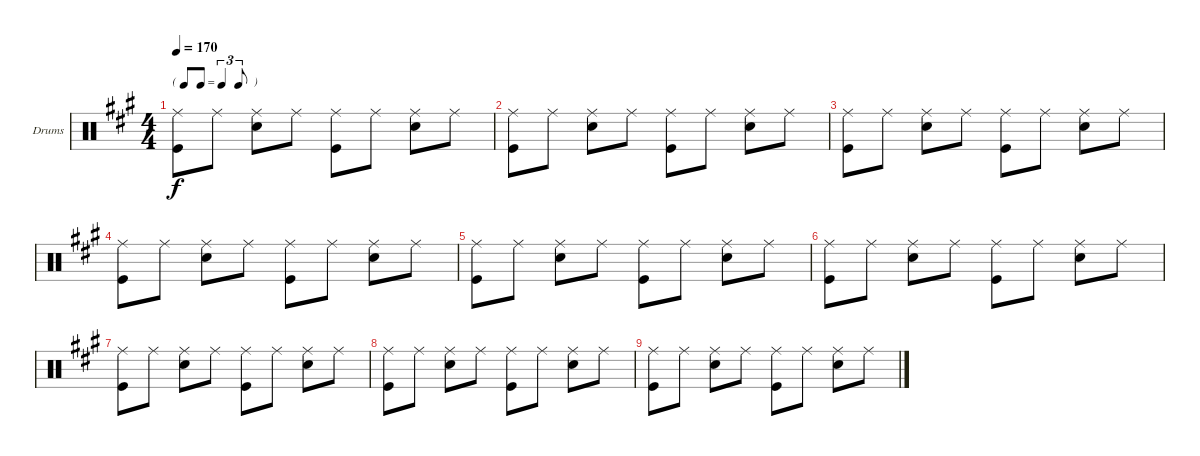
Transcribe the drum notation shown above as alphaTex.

\bracketExtendMode groupsimilarinstruments
\firstSystemTrackNameOrientation horizontal
\otherSystemsTrackNameOrientation horizontal
\track ("Ringo" "Drums") {instrument percussion}
\staff {score}
\articulation defaults
\ts (4 4)
\tf triplet8th
\tempo 170
\clef neutral
\ks a
("Ride (middle)" "Kick (hit)").8{dy f} "Ride (middle)".8 ("Ride (middle)" "Snare (hit) 2").8 "Ride (middle)".8 ("Ride (middle)" "Kick (hit)").8 "Ride (middle)".8 ("Ride (middle)" "Snare (hit) 2").8 "Ride (middle)".8 |
("Ride (middle)" "Kick (hit)").8 "Ride (middle)".8 ("Ride (middle)" "Snare (hit) 2").8 "Ride (middle)".8 ("Ride (middle)" "Kick (hit)").8 "Ride (middle)".8 ("Ride (middle)" "Snare (hit) 2").8 "Ride (middle)".8 |
("Ride (middle)" "Kick (hit)").8 "Ride (middle)".8 ("Ride (middle)" "Snare (hit) 2").8 "Ride (middle)".8 ("Ride (middle)" "Kick (hit)").8 "Ride (middle)".8 ("Ride (middle)" "Snare (hit) 2").8 "Ride (middle)".8 |
("Ride (middle)" "Kick (hit)").8 "Ride (middle)".8 ("Ride (middle)" "Snare (hit) 2").8 "Ride (middle)".8 ("Ride (middle)" "Kick (hit)").8 "Ride (middle)".8 ("Ride (middle)" "Snare (hit) 2").8 "Ride (middle)".8 |
("Ride (middle)" "Kick (hit)").8 "Ride (middle)".8 ("Ride (middle)" "Snare (hit) 2").8 "Ride (middle)".8 ("Ride (middle)" "Kick (hit)").8 "Ride (middle)".8 ("Ride (middle)" "Snare (hit) 2").8 "Ride (middle)".8 |
("Ride (middle)" "Kick (hit)").8 "Ride (middle)".8 ("Ride (middle)" "Snare (hit) 2").8 "Ride (middle)".8 ("Ride (middle)" "Kick (hit)").8 "Ride (middle)".8 ("Ride (middle)" "Snare (hit) 2").8 "Ride (middle)".8 |
("Ride (middle)" "Kick (hit)").8 "Ride (middle)".8 ("Ride (middle)" "Snare (hit) 2").8 "Ride (middle)".8 ("Ride (middle)" "Kick (hit)").8 "Ride (middle)".8 ("Ride (middle)" "Snare (hit) 2").8 "Ride (middle)".8 |
("Ride (middle)" "Kick (hit)").8 "Ride (middle)".8 ("Ride (middle)" "Snare (hit) 2").8 "Ride (middle)".8 ("Ride (middle)" "Kick (hit)").8 "Ride (middle)".8 ("Ride (middle)" "Snare (hit) 2").8 "Ride (middle)".8 |
("Ride (middle)" "Kick (hit)").8 "Ride (middle)".8 ("Ride (middle)" "Snare (hit) 2").8 "Ride (middle)".8 ("Ride (middle)" "Kick (hit)").8 "Ride (middle)".8 ("Ride (middle)" "Snare (hit) 2").8 "Ride (middle)".8
